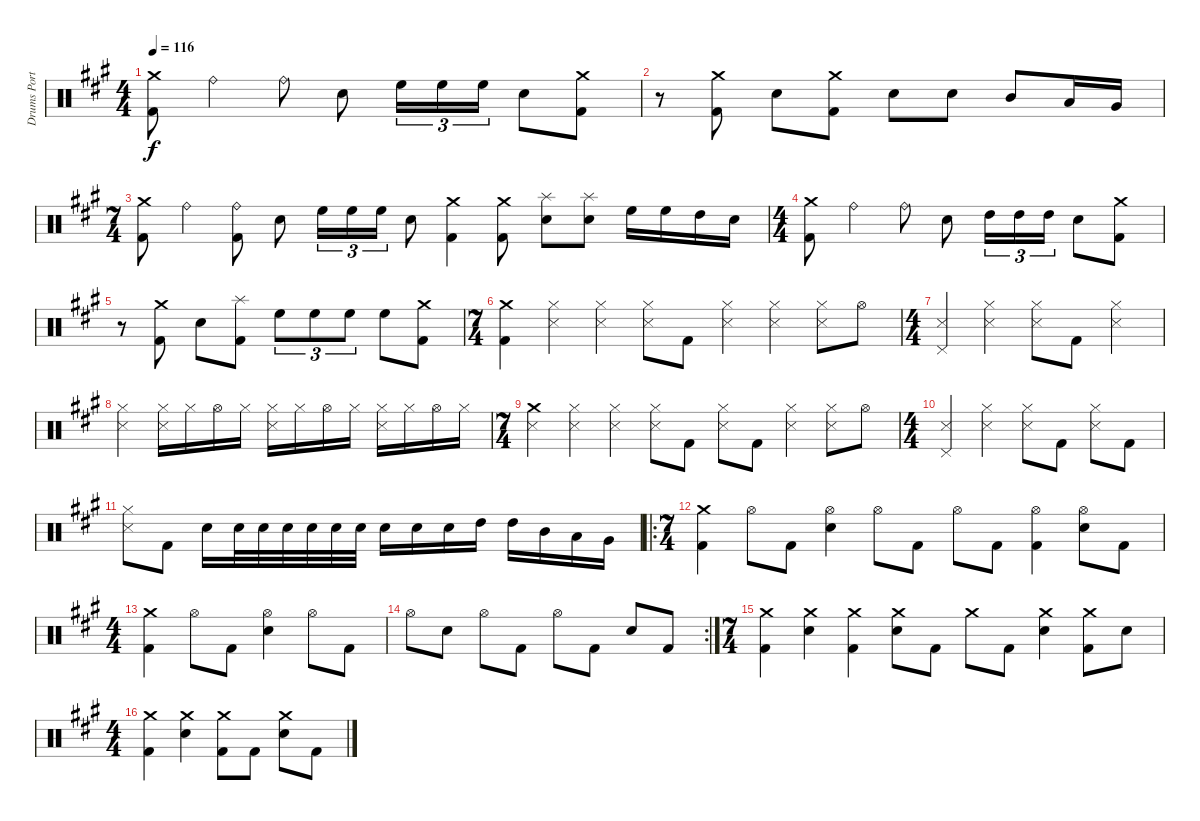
\track ("Drums Portnoy" "Drums Port") {instrument percussion}
\staff {score}
\articulation defaults
\ts (4 4)
\tempo 116
\clef neutral
\ks a
("Crash medium (hit)" "Kick (hit) 2").8{dy f} "Ride (bell)".4 "Ride (bell)".8 "Snare (hit) 2".8 "High Floor Tom (hit)".16{tu (3 2)} "High Floor Tom (hit)".16{tu (3 2)} "High Floor Tom (hit)".16{tu (3 2)} "Snare (hit) 2".8 ("Crash medium (hit)" "Kick (hit) 2").8 |
r.8 ("Crash medium (hit)" "Kick (hit) 2").8 "Snare (hit) 2".8 ("Crash medium (hit)" "Kick (hit) 2").8 "Snare (hit) 2".8 "Snare (hit) 2".8 "Mid Tom (hit)".8 "Low Tom (hit)".16 "Very Low Tom (hit)".16 |
\ts (7 4)
("Crash medium (hit)" "Kick (hit) 2").8 "Ride (bell)".4 ("Ride (bell)" "Kick (hit) 2").8 "Snare (hit) 2".8 "High Floor Tom (hit)".16{tu (3 2)} "High Floor Tom (hit)".16{tu (3 2)} "High Floor Tom (hit)".16{tu (3 2)} "Snare (hit) 2".8 ("Crash medium (hit)" "Kick (hit) 2").4 ("Crash medium (hit)" "Kick (hit) 2").8 ("Splash (hit)" "Snare (hit) 2").8 ("Splash (hit)" "Snare (hit) 2").8 "High Floor Tom (hit)".16 "High Floor Tom (hit)".16 "High Tom (hit)".16 "Snare (hit) 2".16 |
\ts (4 4)
("Crash medium (hit)" "Kick (hit) 2").8 "Ride (bell)".4 "Ride (bell)".8 "Snare (hit) 2".8 "High Tom (hit)".16{tu (3 2)} "High Tom (hit)".16{tu (3 2)} "High Tom (hit)".16{tu (3 2)} "Snare (hit) 2".8 ("Crash medium (hit)" "Kick (hit) 2").8 |
r.8 ("Crash medium (hit)" "Kick (hit) 2").8 "Snare (hit) 2".8 ("Splash (hit)" "Kick (hit) 2").8 "High Floor Tom (hit)".8{tu (3 2)} "High Floor Tom (hit)".8{tu (3 2)} "High Floor Tom (hit)".8{tu (3 2)} "High Floor Tom (hit)".8 ("Crash medium (hit)" "Kick (hit) 2").8 |
\ts (7 4)
("Crash medium (hit)" "Kick (hit) 2").4 ("Hi-Hat (closed)" "Snare (side stick) 3").4 ("Hi-Hat (closed)" "Snare (side stick) 3").4 ("Hi-Hat (closed)" "Snare (side stick) 3").8 "Kick (hit) 2".8 ("Hi-Hat (closed)" "Snare (side stick) 3").4 ("Hi-Hat (closed)" "Snare (side stick) 3").4 ("Hi-Hat (closed)" "Snare (side stick) 3").8 "Hi-Hat (open)".8 |
\ts (4 4)
("Pedal Hi-Hat (hit)" "Snare (side stick) 3").4 ("Hi-Hat (closed)" "Snare (side stick) 3").4 ("Hi-Hat (closed)" "Snare (side stick) 3").8 "Kick (hit) 2".8 ("Hi-Hat (closed)" "Snare (side stick) 3").4 |
("Hi-Hat (closed)" "Snare (side stick) 3").4 ("Hi-Hat (closed)" "Snare (side stick) 3").16 "Hi-Hat (closed)".16 "Hi-Hat (open)".16 "Hi-Hat (closed)".16 ("Hi-Hat (closed)" "Snare (side stick) 3").16 "Hi-Hat (closed)".16 "Hi-Hat (open)".16 "Hi-Hat (closed)".16 ("Hi-Hat (closed)" "Snare (side stick) 3").16 "Hi-Hat (closed)".16 "Hi-Hat (open)".16 "Hi-Hat (closed)".16 |
\ts (7 4)
("Crash medium (hit)" "Snare (side stick) 3").4 ("Hi-Hat (closed)" "Snare (side stick) 3").4 ("Hi-Hat (closed)" "Snare (side stick) 3").4 ("Hi-Hat (closed)" "Snare (side stick) 3").8 "Kick (hit) 2".8 ("Hi-Hat (closed)" "Snare (side stick) 3").8 "Kick (hit) 2".8 ("Hi-Hat (closed)" "Snare (side stick) 3").4 ("Hi-Hat (closed)" "Snare (side stick) 3").8 "Hi-Hat (open)".8 |
\ts (4 4)
("Pedal Hi-Hat (hit)" "Snare (side stick) 3").4 ("Hi-Hat (closed)" "Snare (side stick) 3").4 ("Hi-Hat (closed)" "Snare (side stick) 3").8 "Kick (hit) 2".8 ("Hi-Hat (closed)" "Snare (side stick) 3").8 "Kick (hit) 2".8 |
("Hi-Hat (closed)" "Snare (side stick) 3").8 "Kick (hit) 2".8 "Snare (hit) 2".16 "Snare (hit) 2".32 "Snare (hit) 2".32 "Snare (hit) 2".32 "Snare (hit) 2".32 "Snare (hit) 2".32 "Snare (hit) 2".32 "Snare (hit) 2".16 "Snare (hit) 2".16 "Snare (hit) 2".16 "High Tom (hit)".16 "High Tom (hit)".16 "Mid Tom (hit)".16 "Low Tom (hit)".16 "Very Low Tom (hit)".16 |
\ro
\ts (7 4)
("Crash medium (hit)" "Kick (hit) 2").4 "Hi-Hat (open)".8 "Kick (hit) 2".8 ("Hi-Hat (open)" "Snare (hit) 2").4 "Hi-Hat (open)".8 "Kick (hit) 2".8 "Hi-Hat (open)".8 "Kick (hit) 2".8 ("Hi-Hat (open)" "Kick (hit) 2").4 ("Hi-Hat (open)" "Snare (hit) 2").8 "Kick (hit) 2".8 |
\ts (4 4)
("Crash medium (hit)" "Kick (hit) 2").4 "Hi-Hat (open)".8 "Kick (hit) 2".8 ("Hi-Hat (open)" "Snare (hit) 2").4 "Hi-Hat (open)".8 "Kick (hit) 2".8 |
\rc 2 "Hi-Hat (open)".8 "Snare (hit) 2".8 "Hi-Hat (open)".8 "Kick (hit) 2".8 "Hi-Hat (open)".8 "Kick (hit) 2".8 "Snare (hit) 2".8 "Kick (hit) 2".8
|
\ts (7 4)
("Crash medium (hit)" "Kick (hit) 2").4 ("Crash medium (hit)" "Snare (hit) 2").4 ("Crash medium (hit)" "Kick (hit) 2").4 ("Crash medium (hit)" "Snare (hit) 2").8 "Kick (hit) 2".8 "Crash medium (hit)".8 "Kick (hit) 2".8 ("Crash medium (hit)" "Snare (hit) 2").4 ("Crash medium (hit)" "Kick (hit) 2").8 "Snare (hit) 2".8 |
\ts (4 4)
("Crash medium (hit)" "Kick (hit) 2").4 ("Crash medium (hit)" "Snare (hit) 2").4 ("Crash medium (hit)" "Kick (hit) 2").8 "Kick (hit) 2".8 ("Crash medium (hit)" "Snare (hit) 2").8 "Kick (hit) 2".8
